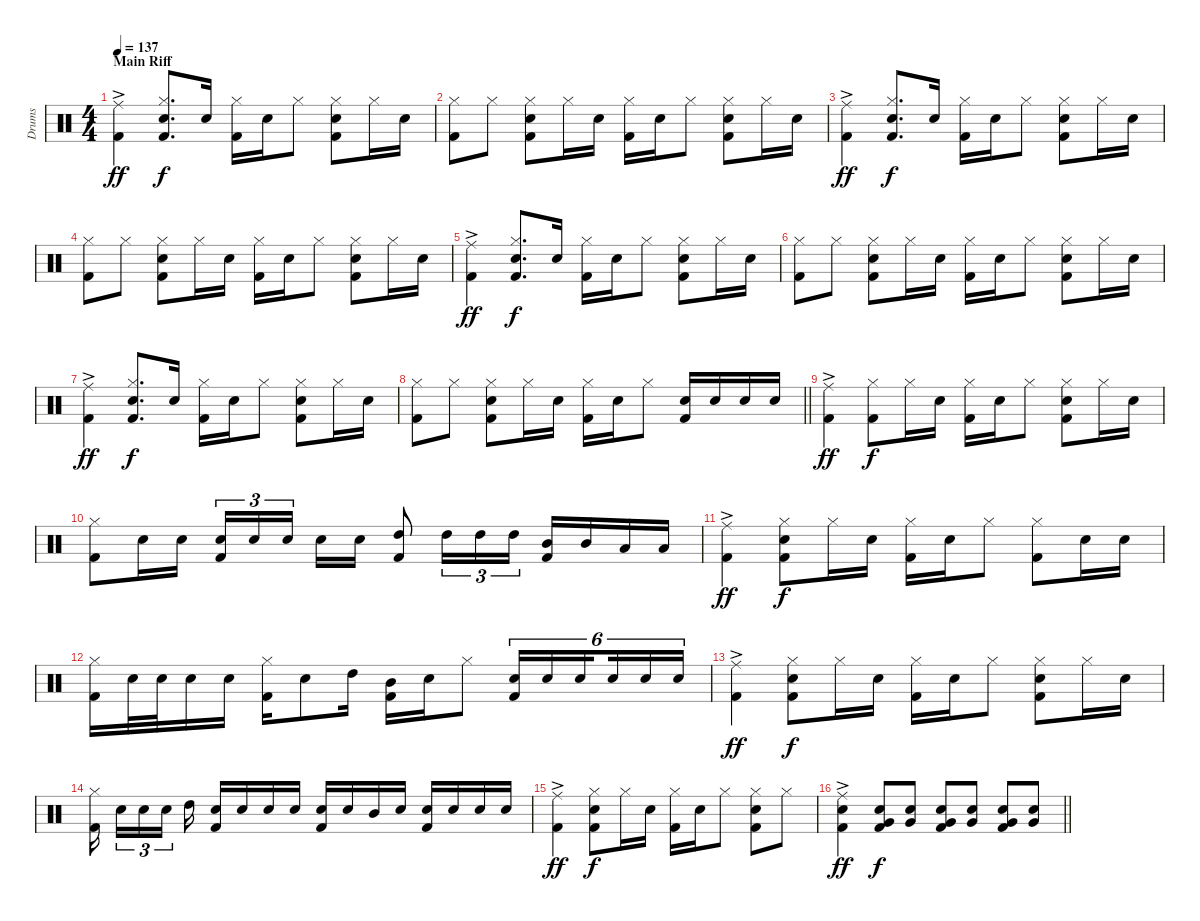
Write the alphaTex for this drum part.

\track ("Drums" "Drums") {instrument percussion}
\staff {score}
\articulation defaults
\ts (4 4)
\section ("" "Main Riff")
\tempo 137
\clef neutral
\ks c
("Ride (middle)"{ac} "Kick (hit) 2").4{dy ff} ("Hi-Hat (closed)" "Electric Snare (hit)" "Kick (hit) 2").8{d dy f} "Electric Snare (hit)".16 ("Hi-Hat (closed)" "Kick (hit) 2").16 "Electric Snare (hit)".16 "Hi-Hat (closed)".8 ("Hi-Hat (closed)" "Electric Snare (hit)" "Kick (hit) 2").8 "Hi-Hat (closed)".16 "Electric Snare (hit)".16 |
("Hi-Hat (closed)" "Kick (hit) 2").8 "Hi-Hat (closed)".8 ("Hi-Hat (closed)" "Electric Snare (hit)" "Kick (hit) 2").8 "Hi-Hat (closed)".16 "Electric Snare (hit)".16 ("Hi-Hat (closed)" "Kick (hit) 2").16 "Electric Snare (hit)".16 "Hi-Hat (closed)".8 ("Hi-Hat (closed)" "Electric Snare (hit)" "Kick (hit) 2").8 "Hi-Hat (closed)".16 "Electric Snare (hit)".16 |
("Ride (middle)"{ac} "Kick (hit) 2").4{dy ff} ("Hi-Hat (closed)" "Electric Snare (hit)" "Kick (hit) 2").8{d dy f} "Electric Snare (hit)".16 ("Hi-Hat (closed)" "Kick (hit) 2").16 "Electric Snare (hit)".16 "Hi-Hat (closed)".8 ("Hi-Hat (closed)" "Electric Snare (hit)" "Kick (hit) 2").8 "Hi-Hat (closed)".16 "Electric Snare (hit)".16 |
("Hi-Hat (closed)" "Kick (hit) 2").8 "Hi-Hat (closed)".8 ("Hi-Hat (closed)" "Electric Snare (hit)" "Kick (hit) 2").8 "Hi-Hat (closed)".16 "Electric Snare (hit)".16 ("Hi-Hat (closed)" "Kick (hit) 2").16 "Electric Snare (hit)".16 "Hi-Hat (closed)".8 ("Hi-Hat (closed)" "Electric Snare (hit)" "Kick (hit) 2").8 "Hi-Hat (closed)".16 "Electric Snare (hit)".16 |
("Ride (middle)"{ac} "Kick (hit) 2").4{dy ff} ("Hi-Hat (closed)" "Electric Snare (hit)" "Kick (hit) 2").8{d dy f} "Electric Snare (hit)".16 ("Hi-Hat (closed)" "Kick (hit) 2").16 "Electric Snare (hit)".16 "Hi-Hat (closed)".8 ("Hi-Hat (closed)" "Electric Snare (hit)" "Kick (hit) 2").8 "Hi-Hat (closed)".16 "Electric Snare (hit)".16 |
("Hi-Hat (closed)" "Kick (hit) 2").8 "Hi-Hat (closed)".8 ("Hi-Hat (closed)" "Electric Snare (hit)" "Kick (hit) 2").8 "Hi-Hat (closed)".16 "Electric Snare (hit)".16 ("Hi-Hat (closed)" "Kick (hit) 2").16 "Electric Snare (hit)".16 "Hi-Hat (closed)".8 ("Hi-Hat (closed)" "Electric Snare (hit)" "Kick (hit) 2").8 "Hi-Hat (closed)".16 "Electric Snare (hit)".16 |
("Ride (middle)"{ac} "Kick (hit) 2").4{dy ff} ("Hi-Hat (closed)" "Electric Snare (hit)" "Kick (hit) 2").8{d dy f} "Electric Snare (hit)".16 ("Hi-Hat (closed)" "Kick (hit) 2").16 "Electric Snare (hit)".16 "Hi-Hat (closed)".8 ("Hi-Hat (closed)" "Electric Snare (hit)" "Kick (hit) 2").8 "Hi-Hat (closed)".16 "Electric Snare (hit)".16 |
\barLineRight lightlight
("Hi-Hat (closed)" "Kick (hit) 2").8 "Hi-Hat (closed)".8 ("Hi-Hat (closed)" "Electric Snare (hit)" "Kick (hit) 2").8 "Hi-Hat (closed)".16 "Electric Snare (hit)".16 ("Hi-Hat (closed)" "Kick (hit) 2").16 "Electric Snare (hit)".16 "Hi-Hat (closed)".8 ("Electric Snare (hit)" "Kick (hit) 2").16 "Electric Snare (hit)".16 "Electric Snare (hit)".16 "Electric Snare (hit)".16 |
\section ("" "")
("Ride (middle)"{ac} "Kick (hit) 2").4{dy ff} ("Hi-Hat (closed)" "Kick (hit) 2").8{dy f} "Hi-Hat (closed)".16 "Electric Snare (hit)".16 ("Hi-Hat (closed)" "Kick (hit) 2").16 "Electric Snare (hit)".16 "Hi-Hat (closed)".8 ("Hi-Hat (closed)" "Electric Snare (hit)" "Kick (hit) 2").8 "Hi-Hat (closed)".16 "Electric Snare (hit)".16 |
("Hi-Hat (closed)" "Kick (hit) 2").8 "Electric Snare (hit)".16 "Electric Snare (hit)".16 ("Electric Snare (hit)" "Kick (hit) 2").16{tu (3 2)} "Electric Snare (hit)".16{tu (3 2)} "Electric Snare (hit)".16{tu (3 2) beam splitsecondary} "Electric Snare (hit)".16 "Electric Snare (hit)".16 ("High Tom (hit)" "Kick (hit) 2").8 "High Tom (hit)".16{tu (3 2)} "High Tom (hit)".16{tu (3 2)} "High Tom (hit)".16{tu (3 2)} ("Mid Tom (hit)" "Kick (hit) 2").16 "Mid Tom (hit)".16 "Low Tom (hit)".16 "Low Tom (hit)".16 |
("Ride (middle)"{ac} "Kick (hit) 2").4{dy ff} ("Hi-Hat (closed)" "Electric Snare (hit)" "Kick (hit) 2").8{dy f} "Hi-Hat (closed)".16 "Electric Snare (hit)".16 ("Hi-Hat (closed)" "Kick (hit) 2").16 "Electric Snare (hit)".16 "Hi-Hat (closed)".8 ("Hi-Hat (closed)" "Kick (hit) 2").8 "Electric Snare (hit)".16 "Electric Snare (hit)".16 |
("Hi-Hat (closed)" "Kick (hit) 2").16 "Electric Snare (hit)".32 "Electric Snare (hit)".32 "Electric Snare (hit)".16 "Electric Snare (hit)".16 ("Hi-Hat (closed)" "Kick (hit) 2").16 "Electric Snare (hit)".8 "High Tom (hit)".16 ("Mid Tom (hit)" "Kick (hit) 2").16 "Electric Snare (hit)".16 "Hi-Hat (closed)".8 ("Electric Snare (hit)" "Kick (hit) 2").16{tu (6 4)} "Electric Snare (hit)".16{tu (6 4)} "Electric Snare (hit)".16{tu (6 4) beam splitsecondary} "Electric Snare (hit)".16{tu (6 4)} "Electric Snare (hit)".16{tu (6 4)} "Electric Snare (hit)".16{tu (6 4)} |
("Ride (middle)"{ac} "Kick (hit) 2").4{dy ff} ("Hi-Hat (closed)" "Electric Snare (hit)" "Kick (hit) 2").8{dy f} "Hi-Hat (closed)".16 "Electric Snare (hit)".16 ("Hi-Hat (closed)" "Kick (hit) 2").16 "Electric Snare (hit)".16 "Hi-Hat (closed)".8 ("Hi-Hat (closed)" "Electric Snare (hit)" "Kick (hit) 2").8 "Hi-Hat (closed)".16 "Electric Snare (hit)".16 |
("Hi-Hat (closed)" "Kick (hit) 2").16{beam splitsecondary} "Electric Snare (hit)".16{tu (3 2)} "Electric Snare (hit)".16{tu (3 2)} "Electric Snare (hit)".16{tu (3 2) beam splitsecondary} "High Tom (hit)".16 ("Electric Snare (hit)" "Kick (hit) 2").16 "Electric Snare (hit)".16 "Electric Snare (hit)".16 "Electric Snare (hit)".16 ("Electric Snare (hit)" "Kick (hit) 2").16 "Electric Snare (hit)".16 "Mid Tom (hit)".16 "Electric Snare (hit)".16 ("Electric Snare (hit)" "Kick (hit) 2").16 "Electric Snare (hit)".16 "Electric Snare (hit)".16 "Electric Snare (hit)".16 |
("Ride (middle)"{ac} "Kick (hit) 2").4{dy ff} ("Hi-Hat (closed)" "Electric Snare (hit)" "Kick (hit) 2").8{dy f} "Hi-Hat (closed)".16 "Electric Snare (hit)".16 ("Hi-Hat (closed)" "Kick (hit) 2").16 "Electric Snare (hit)".16 "Hi-Hat (closed)".8 ("Hi-Hat (closed)" "Electric Snare (hit)" "Kick (hit) 2").8 "Hi-Hat (closed)".8 |
\barLineRight lightlight
("Ride (middle)"{ac} "Electric Snare (hit)" "Kick (hit) 2").4{dy ff} ("Electric Snare (hit)" "Very Low Tom (hit)" "Kick (hit) 2").8{dy f} ("Electric Snare (hit)" "Very Low Tom (hit)").8 ("Electric Snare (hit)" "Very Low Tom (hit)" "Kick (hit) 2").8 ("Electric Snare (hit)" "Very Low Tom (hit)").8 ("Electric Snare (hit)" "Very Low Tom (hit)" "Kick (hit) 2").8 ("Electric Snare (hit)" "Very Low Tom (hit)").8
